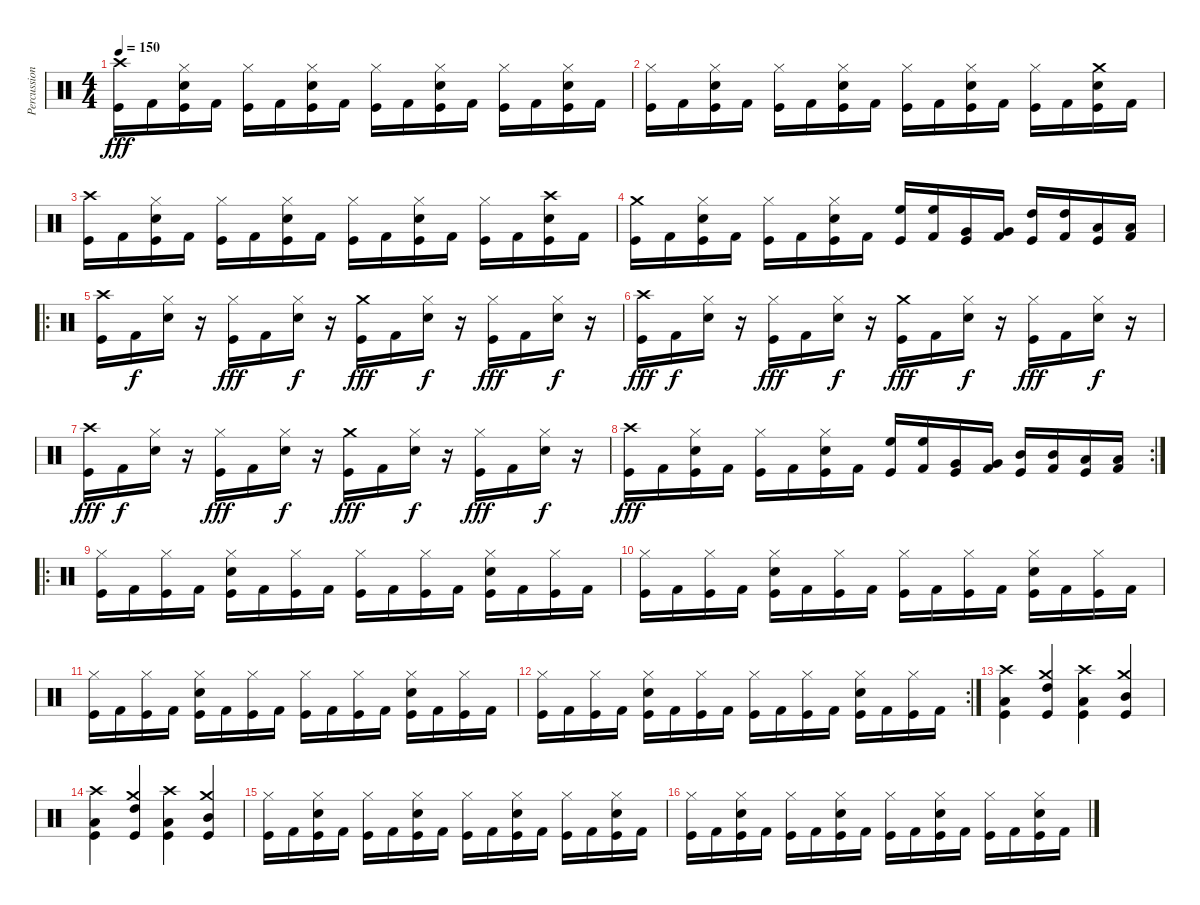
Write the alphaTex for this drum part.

\track ("Percussion" "Percussion") {instrument percussion}
\staff {score}
\articulation defaults
\ts (4 4)
\tempo 150
\clef neutral
\ks c
("Crash high (hit)" "Kick (hit)").16{dy fff} "Kick (hit) 2".16 ("Hi-Hat (closed)" "Electric Snare (hit)" "Kick (hit)").16 "Kick (hit) 2".16 ("Hi-Hat (closed)" "Kick (hit)").16 "Kick (hit) 2".16 ("Hi-Hat (closed)" "Electric Snare (hit)" "Kick (hit)").16 "Kick (hit) 2".16 ("Hi-Hat (closed)" "Kick (hit)").16 "Kick (hit) 2".16 ("Hi-Hat (closed)" "Electric Snare (hit)" "Kick (hit)").16 "Kick (hit) 2".16 ("Hi-Hat (closed)" "Kick (hit)").16 "Kick (hit) 2".16 ("Hi-Hat (closed)" "Electric Snare (hit)" "Kick (hit)").16 "Kick (hit) 2".16 |
("Hi-Hat (closed)" "Kick (hit)").16 "Kick (hit) 2".16 ("Hi-Hat (closed)" "Electric Snare (hit)" "Kick (hit)").16 "Kick (hit) 2".16 ("Hi-Hat (closed)" "Kick (hit)").16 "Kick (hit) 2".16 ("Hi-Hat (closed)" "Electric Snare (hit)" "Kick (hit)").16 "Kick (hit) 2".16 ("Hi-Hat (closed)" "Kick (hit)").16 "Kick (hit) 2".16 ("Hi-Hat (closed)" "Electric Snare (hit)" "Kick (hit)").16 "Kick (hit) 2".16 ("Hi-Hat (closed)" "Kick (hit)").16 "Kick (hit) 2".16 ("Crash medium (hit)" "Electric Snare (hit)" "Kick (hit)").16 "Kick (hit) 2".16 |
("Crash high (hit)" "Kick (hit)").16 "Kick (hit) 2".16 ("Hi-Hat (closed)" "Electric Snare (hit)" "Kick (hit)").16 "Kick (hit) 2".16 ("Hi-Hat (closed)" "Kick (hit)").16 "Kick (hit) 2".16 ("Hi-Hat (closed)" "Electric Snare (hit)" "Kick (hit)").16 "Kick (hit) 2".16 ("Hi-Hat (closed)" "Kick (hit)").16 "Kick (hit) 2".16 ("Hi-Hat (closed)" "Electric Snare (hit)" "Kick (hit)").16 "Kick (hit) 2".16 ("Hi-Hat (closed)" "Kick (hit)").16 "Kick (hit) 2".16 ("Crash high (hit)" "Electric Snare (hit)" "Kick (hit)").16 "Kick (hit) 2".16 |
("Crash medium (hit)" "Kick (hit)").16 "Kick (hit) 2".16 ("Hi-Hat (closed)" "Electric Snare (hit)" "Kick (hit)").16 "Kick (hit) 2".16 ("Hi-Hat (closed)" "Kick (hit)").16 "Kick (hit) 2".16 ("Hi-Hat (closed)" "Electric Snare (hit)" "Kick (hit)").16 "Kick (hit) 2".16 ("High Floor Tom (hit)" "Kick (hit)").16 ("High Floor Tom (hit)" "Kick (hit) 2").16 ("Very Low Tom (hit)" "Kick (hit)").16 ("Very Low Tom (hit)" "Kick (hit) 2").16 ("High Tom (hit)" "Kick (hit)").16 ("High Tom (hit)" "Kick (hit) 2").16 ("Low Floor Tom (hit)" "Kick (hit)").16 ("Low Floor Tom (hit)" "Kick (hit) 2").16 |
\ro
("Crash high (hit)" "Kick (hit)").16 "Kick (hit) 2".16{dy f} ("Hi-Hat (closed)" "Electric Snare (hit)").16 r.16 ("Hi-Hat (closed)" "Kick (hit)").16{dy fff} "Kick (hit) 2".16 ("Hi-Hat (closed)" "Electric Snare (hit)").16{dy f} r.16 ("Crash medium (hit)" "Kick (hit)").16{dy fff} "Kick (hit) 2".16 ("Hi-Hat (closed)" "Electric Snare (hit)").16{dy f} r.16 ("Hi-Hat (closed)" "Kick (hit)").16{dy fff} "Kick (hit) 2".16 ("Hi-Hat (closed)" "Electric Snare (hit)").16{dy f} r.16 |
("Crash high (hit)" "Kick (hit)").16{dy fff} "Kick (hit) 2".16{dy f} ("Hi-Hat (closed)" "Electric Snare (hit)").16 r.16 ("Hi-Hat (closed)" "Kick (hit)").16{dy fff} "Kick (hit) 2".16 ("Hi-Hat (closed)" "Electric Snare (hit)").16{dy f} r.16 ("Crash medium (hit)" "Kick (hit)").16{dy fff} "Kick (hit) 2".16 ("Hi-Hat (closed)" "Electric Snare (hit)").16{dy f} r.16 ("Hi-Hat (closed)" "Kick (hit)").16{dy fff} "Kick (hit) 2".16 ("Hi-Hat (closed)" "Electric Snare (hit)").16{dy f} r.16 |
("Crash high (hit)" "Kick (hit)").16{dy fff} "Kick (hit) 2".16{dy f} ("Hi-Hat (closed)" "Electric Snare (hit)").16 r.16 ("Hi-Hat (closed)" "Kick (hit)").16{dy fff} "Kick (hit) 2".16 ("Hi-Hat (closed)" "Electric Snare (hit)").16{dy f} r.16 ("Crash medium (hit)" "Kick (hit)").16{dy fff} "Kick (hit) 2".16 ("Hi-Hat (closed)" "Electric Snare (hit)").16{dy f} r.16 ("Hi-Hat (closed)" "Kick (hit)").16{dy fff} "Kick (hit) 2".16 ("Hi-Hat (closed)" "Electric Snare (hit)").16{dy f} r.16 |
\rc 2
("Crash high (hit)" "Kick (hit)").16{dy fff} "Kick (hit) 2".16 ("Hi-Hat (closed)" "Electric Snare (hit)" "Kick (hit)").16 "Kick (hit) 2".16 ("Hi-Hat (closed)" "Kick (hit)").16 "Kick (hit) 2".16 ("Hi-Hat (closed)" "Electric Snare (hit)" "Kick (hit)").16 "Kick (hit) 2".16 ("High Floor Tom (hit)" "Kick (hit)").16 ("High Floor Tom (hit)" "Kick (hit) 2").16 ("Very Low Tom (hit)" "Kick (hit)").16 ("Very Low Tom (hit)" "Kick (hit) 2").16 ("Mid Tom (hit)" "Kick (hit)").16 ("Mid Tom (hit)" "Kick (hit) 2").16 ("Low Floor Tom (hit)" "Kick (hit)").16 ("Low Floor Tom (hit)" "Kick (hit) 2").16 |
\ro
("Hi-Hat (closed)" "Kick (hit)").16 "Kick (hit) 2".16 ("Hi-Hat (closed)" "Kick (hit)").16 "Kick (hit) 2".16 ("Hi-Hat (closed)" "Electric Snare (hit)" "Kick (hit)").16 "Kick (hit) 2".16 ("Hi-Hat (closed)" "Kick (hit)").16 "Kick (hit) 2".16 ("Hi-Hat (closed)" "Kick (hit)").16 "Kick (hit) 2".16 ("Hi-Hat (closed)" "Kick (hit)").16 "Kick (hit) 2".16 ("Hi-Hat (closed)" "Electric Snare (hit)" "Kick (hit)").16 "Kick (hit) 2".16 ("Hi-Hat (closed)" "Kick (hit)").16 "Kick (hit) 2".16 |
("Hi-Hat (closed)" "Kick (hit)").16 "Kick (hit) 2".16 ("Hi-Hat (closed)" "Kick (hit)").16 "Kick (hit) 2".16 ("Hi-Hat (closed)" "Electric Snare (hit)" "Kick (hit)").16 "Kick (hit) 2".16 ("Hi-Hat (closed)" "Kick (hit)").16 "Kick (hit) 2".16 ("Hi-Hat (closed)" "Kick (hit)").16 "Kick (hit) 2".16 ("Hi-Hat (closed)" "Kick (hit)").16 "Kick (hit) 2".16 ("Hi-Hat (closed)" "Electric Snare (hit)" "Kick (hit)").16 "Kick (hit) 2".16 ("Hi-Hat (closed)" "Kick (hit)").16 "Kick (hit) 2".16 |
("Hi-Hat (closed)" "Kick (hit)").16 "Kick (hit) 2".16 ("Hi-Hat (closed)" "Kick (hit)").16 "Kick (hit) 2".16 ("Hi-Hat (closed)" "Electric Snare (hit)" "Kick (hit)").16 "Kick (hit) 2".16 ("Hi-Hat (closed)" "Kick (hit)").16 "Kick (hit) 2".16 ("Hi-Hat (closed)" "Kick (hit)").16 "Kick (hit) 2".16 ("Hi-Hat (closed)" "Kick (hit)").16 "Kick (hit) 2".16 ("Hi-Hat (closed)" "Electric Snare (hit)" "Kick (hit)").16 "Kick (hit) 2".16 ("Hi-Hat (closed)" "Kick (hit)").16 "Kick (hit) 2".16 |
\rc 2
("Hi-Hat (closed)" "Kick (hit)").16 "Kick (hit) 2".16 ("Hi-Hat (closed)" "Kick (hit)").16 "Kick (hit) 2".16 ("Hi-Hat (closed)" "Electric Snare (hit)" "Kick (hit)").16 "Kick (hit) 2".16 ("Hi-Hat (closed)" "Kick (hit)").16 "Kick (hit) 2".16 ("Hi-Hat (closed)" "Kick (hit)").16 "Kick (hit) 2".16 ("Hi-Hat (closed)" "Kick (hit)").16 "Kick (hit) 2".16 ("Hi-Hat (closed)" "Electric Snare (hit)" "Kick (hit)").16 "Kick (hit) 2".16 ("Hi-Hat (closed)" "Kick (hit)").16 "Kick (hit) 2".16 |
("Crash high (hit)" "Low Tom (hit)" "Kick (hit)").4 ("Crash medium (hit)" "High Tom (hit)" "Kick (hit)").4 ("Crash high (hit)" "Low Floor Tom (hit)" "Kick (hit)").4 ("Crash medium (hit)" "Mid Tom (hit)" "Kick (hit)").4 |
("Crash high (hit)" "Low Tom (hit)" "Kick (hit)").4 ("Crash medium (hit)" "High Tom (hit)" "Kick (hit)").4 ("Crash high (hit)" "Low Floor Tom (hit)" "Kick (hit)").4 ("Crash medium (hit)" "Mid Tom (hit)" "Kick (hit)").4 |
("Hi-Hat (closed)" "Kick (hit)").16 "Kick (hit) 2".16 ("Hi-Hat (closed)" "Electric Snare (hit)" "Kick (hit)").16 "Kick (hit) 2".16 ("Hi-Hat (closed)" "Kick (hit)").16 "Kick (hit) 2".16 ("Hi-Hat (closed)" "Electric Snare (hit)" "Kick (hit)").16 "Kick (hit) 2".16 ("Hi-Hat (closed)" "Kick (hit)").16 "Kick (hit) 2".16 ("Hi-Hat (closed)" "Electric Snare (hit)" "Kick (hit)").16 "Kick (hit) 2".16 ("Hi-Hat (closed)" "Kick (hit)").16 "Kick (hit) 2".16 ("Hi-Hat (closed)" "Electric Snare (hit)" "Kick (hit)").16 "Kick (hit) 2".16 |
("Hi-Hat (closed)" "Kick (hit)").16 "Kick (hit) 2".16 ("Hi-Hat (closed)" "Electric Snare (hit)" "Kick (hit)").16 "Kick (hit) 2".16 ("Hi-Hat (closed)" "Kick (hit)").16 "Kick (hit) 2".16 ("Hi-Hat (closed)" "Electric Snare (hit)" "Kick (hit)").16 "Kick (hit) 2".16 ("Hi-Hat (closed)" "Kick (hit)").16 "Kick (hit) 2".16 ("Hi-Hat (closed)" "Electric Snare (hit)" "Kick (hit)").16 "Kick (hit) 2".16 ("Hi-Hat (closed)" "Kick (hit)").16 "Kick (hit) 2".16 ("Hi-Hat (closed)" "Electric Snare (hit)" "Kick (hit)").16 "Kick (hit) 2".16
